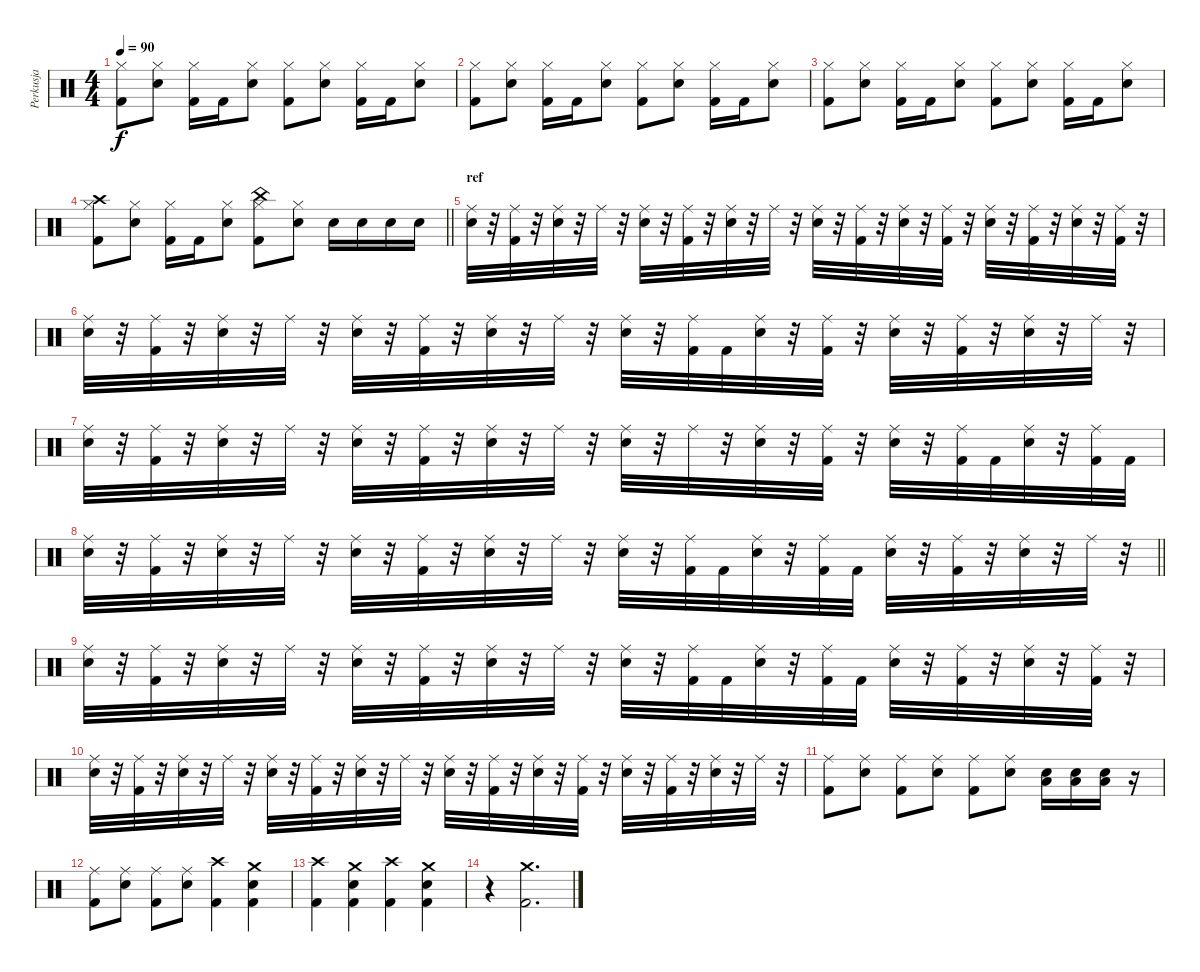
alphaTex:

\track ("Perkusja" "Perkusja") {instrument percussion}
\staff {score}
\articulation defaults
\ts (4 4)
\tempo 90
\clef neutral
\ks c
("Kick (hit) 2" "Hi-Hat (closed)").8{dy f} ("Snare (hit) 2" "Hi-Hat (closed)").8 ("Kick (hit) 2" "Hi-Hat (closed)").16 "Kick (hit) 2".16 ("Snare (hit) 2" "Hi-Hat (closed)").8 ("Kick (hit) 2" "Hi-Hat (closed)").8 ("Snare (hit) 2" "Hi-Hat (closed)").8 ("Kick (hit) 2" "Hi-Hat (closed)").16 "Kick (hit) 2".16 ("Snare (hit) 2" "Hi-Hat (closed)").8 |
("Kick (hit) 2" "Hi-Hat (closed)").8 ("Snare (hit) 2" "Hi-Hat (closed)").8 ("Kick (hit) 2" "Hi-Hat (closed)").16 "Kick (hit) 2".16 ("Snare (hit) 2" "Hi-Hat (closed)").8 ("Kick (hit) 2" "Hi-Hat (closed)").8 ("Snare (hit) 2" "Hi-Hat (closed)").8 ("Kick (hit) 2" "Hi-Hat (closed)").16 "Kick (hit) 2".16 ("Snare (hit) 2" "Hi-Hat (closed)").8 |
("Kick (hit) 2" "Hi-Hat (closed)").8 ("Snare (hit) 2" "Hi-Hat (closed)").8 ("Kick (hit) 2" "Hi-Hat (closed)").16 "Kick (hit) 2".16 ("Snare (hit) 2" "Hi-Hat (closed)").8 ("Kick (hit) 2" "Hi-Hat (closed)").8 ("Snare (hit) 2" "Hi-Hat (closed)").8 ("Kick (hit) 2" "Hi-Hat (closed)").16 "Kick (hit) 2".16 ("Snare (hit) 2" "Hi-Hat (closed)").8 |
\barLineRight lightlight
("Kick (hit) 2" "Hi-Hat (closed)" "Crash high (hit)").8 ("Snare (hit) 2" "Hi-Hat (closed)").8 ("Kick (hit) 2" "Hi-Hat (closed)").16 "Kick (hit) 2".16 ("Snare (hit) 2" "Hi-Hat (closed)").8 ("Kick (hit) 2" "Hi-Hat (closed)" "China (hit)").8 ("Snare (hit) 2" "Hi-Hat (closed)").8 "Snare (hit) 2".16 "Snare (hit) 2".16 "Snare (hit) 2".16 "Snare (hit) 2".16 |
\section ("" "ref")
("Snare (hit) 2" "Ride (middle)").32 r.32 ("Kick (hit) 2" "Ride (middle)").32 r.32 ("Snare (hit) 2" "Ride (middle)").32 r.32 "Ride (middle)".32 r.32 ("Snare (hit) 2" "Ride (middle)").32 r.32 ("Kick (hit) 2" "Ride (middle)").32 r.32 ("Snare (hit) 2" "Ride (middle)").32 r.32 "Ride (middle)".32 r.32 ("Snare (hit) 2" "Ride (middle)").32 r.32 ("Kick (hit) 2" "Ride (middle)").32 r.32 ("Snare (hit) 2" "Ride (middle)").32 r.32 ("Kick (hit) 2" "Ride (middle)").32 r.32 ("Snare (hit) 2" "Ride (middle)").32 r.32 ("Kick (hit) 2" "Ride (middle)").32 r.32 ("Snare (hit) 2" "Ride (middle)").32 r.32 ("Kick (hit) 2" "Ride (middle)").32 r.32 |
("Snare (hit) 2" "Ride (middle)").32 r.32 ("Kick (hit) 2" "Ride (middle)").32 r.32 ("Snare (hit) 2" "Ride (middle)").32 r.32 "Ride (middle)".32 r.32 ("Snare (hit) 2" "Ride (middle)").32 r.32 ("Kick (hit) 2" "Ride (middle)").32 r.32 ("Snare (hit) 2" "Ride (middle)").32 r.32 "Ride (middle)".32 r.32 ("Snare (hit) 2" "Ride (middle)").32 r.32 ("Kick (hit) 2" "Ride (middle)").32 "Kick (hit) 2".32 ("Snare (hit) 2" "Ride (middle)").32 r.32 ("Kick (hit) 2" "Ride (middle)").32 r.32 ("Snare (hit) 2" "Ride (middle)").32 r.32 ("Kick (hit) 2" "Ride (middle)").32 r.32 ("Snare (hit) 2" "Ride (middle)").32 r.32 "Ride (middle)".32 r.32 |
("Snare (hit) 2" "Ride (middle)").32 r.32 ("Kick (hit) 2" "Ride (middle)").32 r.32 ("Snare (hit) 2" "Ride (middle)").32 r.32 "Ride (middle)".32 r.32 ("Snare (hit) 2" "Ride (middle)").32 r.32 ("Kick (hit) 2" "Ride (middle)").32 r.32 ("Snare (hit) 2" "Ride (middle)").32 r.32 "Ride (middle)".32 r.32 ("Snare (hit) 2" "Ride (middle)").32 r.32 "Ride (middle)".32 r.32 ("Snare (hit) 2" "Ride (middle)").32 r.32 ("Kick (hit) 2" "Ride (middle)").32 r.32 ("Snare (hit) 2" "Ride (middle)").32 r.32 ("Kick (hit) 2" "Ride (middle)").32 "Kick (hit) 2".32 ("Snare (hit) 2" "Ride (middle)").32 r.32 ("Kick (hit) 2" "Ride (middle)").32 "Kick (hit) 2".32 |
\barLineRight lightlight
("Snare (hit) 2" "Ride (middle)").32 r.32 ("Kick (hit) 2" "Ride (middle)").32 r.32 ("Snare (hit) 2" "Ride (middle)").32 r.32 "Ride (middle)".32 r.32 ("Snare (hit) 2" "Ride (middle)").32 r.32 ("Kick (hit) 2" "Ride (middle)").32 r.32 ("Snare (hit) 2" "Ride (middle)").32 r.32 "Ride (middle)".32 r.32 ("Snare (hit) 2" "Ride (middle)").32 r.32 ("Kick (hit) 2" "Ride (middle)").32 "Kick (hit) 2".32 ("Snare (hit) 2" "Ride (middle)").32 r.32 ("Kick (hit) 2" "Ride (middle)").32 "Kick (hit) 2".32 ("Snare (hit) 2" "Ride (middle)").32 r.32 ("Kick (hit) 2" "Ride (middle)").32 r.32 ("Snare (hit) 2" "Ride (middle)").32 r.32 "Ride (middle)".32 r.32 |
("Snare (hit) 2" "Ride (middle)").32 r.32 ("Kick (hit) 2" "Ride (middle)").32 r.32 ("Snare (hit) 2" "Ride (middle)").32 r.32 "Ride (middle)".32 r.32 ("Snare (hit) 2" "Ride (middle)").32 r.32 ("Kick (hit) 2" "Ride (middle)").32 r.32 ("Snare (hit) 2" "Ride (middle)").32 r.32 "Ride (middle)".32 r.32 ("Snare (hit) 2" "Ride (middle)").32 r.32 ("Kick (hit) 2" "Ride (middle)").32 "Kick (hit) 2".32 ("Snare (hit) 2" "Ride (middle)").32 r.32 ("Kick (hit) 2" "Ride (middle)").32 "Kick (hit) 2".32 ("Snare (hit) 2" "Ride (middle)").32 r.32 ("Kick (hit) 2" "Ride (middle)").32 r.32 ("Snare (hit) 2" "Ride (middle)").32 r.32 ("Kick (hit) 2" "Ride (middle)").32 r.32 |
("Snare (hit) 2" "Ride (middle)").32 r.32 ("Kick (hit) 2" "Ride (middle)").32 r.32 ("Snare (hit) 2" "Ride (middle)").32 r.32 "Ride (middle)".32 r.32 ("Snare (hit) 2" "Ride (middle)").32 r.32 ("Kick (hit) 2" "Ride (middle)").32 r.32 ("Snare (hit) 2" "Ride (middle)").32 r.32 "Ride (middle)".32 r.32 ("Snare (hit) 2" "Ride (middle)").32 r.32 ("Kick (hit) 2" "Ride (middle)").32 r.32 ("Snare (hit) 2" "Ride (middle)").32 r.32 ("Kick (hit) 2" "Ride (middle)").32 r.32 ("Snare (hit) 2" "Ride (middle)").32 r.32 ("Kick (hit) 2" "Ride (middle)").32 r.32 ("Snare (hit) 2" "Ride (middle)").32 r.32 "Ride (middle)".32 r.32 |
("Ride (middle)" "Kick (hit) 2").8 ("Ride (middle)" "Snare (hit) 2").8 ("Ride (middle)" "Kick (hit) 2").8 ("Ride (middle)" "Snare (hit) 2").8 ("Ride (middle)" "Kick (hit) 2").8 ("Ride (middle)" "Snare (hit) 2").8 ("Low Floor Tom (hit)" "Snare (hit) 2").16 ("Low Floor Tom (hit)" "Snare (hit) 2").16 ("Low Floor Tom (hit)" "Snare (hit) 2").16 r.16 |
("Ride (middle)" "Kick (hit) 2").8 ("Ride (middle)" "Snare (hit) 2").8 ("Ride (middle)" "Kick (hit) 2").8 ("Ride (middle)" "Snare (hit) 2").8 ("Crash high (hit)" "Kick (hit) 2").4 ("Crash medium (hit)" "Kick (hit) 2" "Snare (hit) 2").4 |
("Crash high (hit)" "Kick (hit) 2").4 ("Crash medium (hit)" "Kick (hit) 2" "Snare (hit) 2").4 ("Crash high (hit)" "Kick (hit) 2").4 ("Crash medium (hit)" "Kick (hit) 2" "Snare (hit) 2").4 |
r.4 ("Crash medium (hit)" "Kick (hit) 2").2{d}
